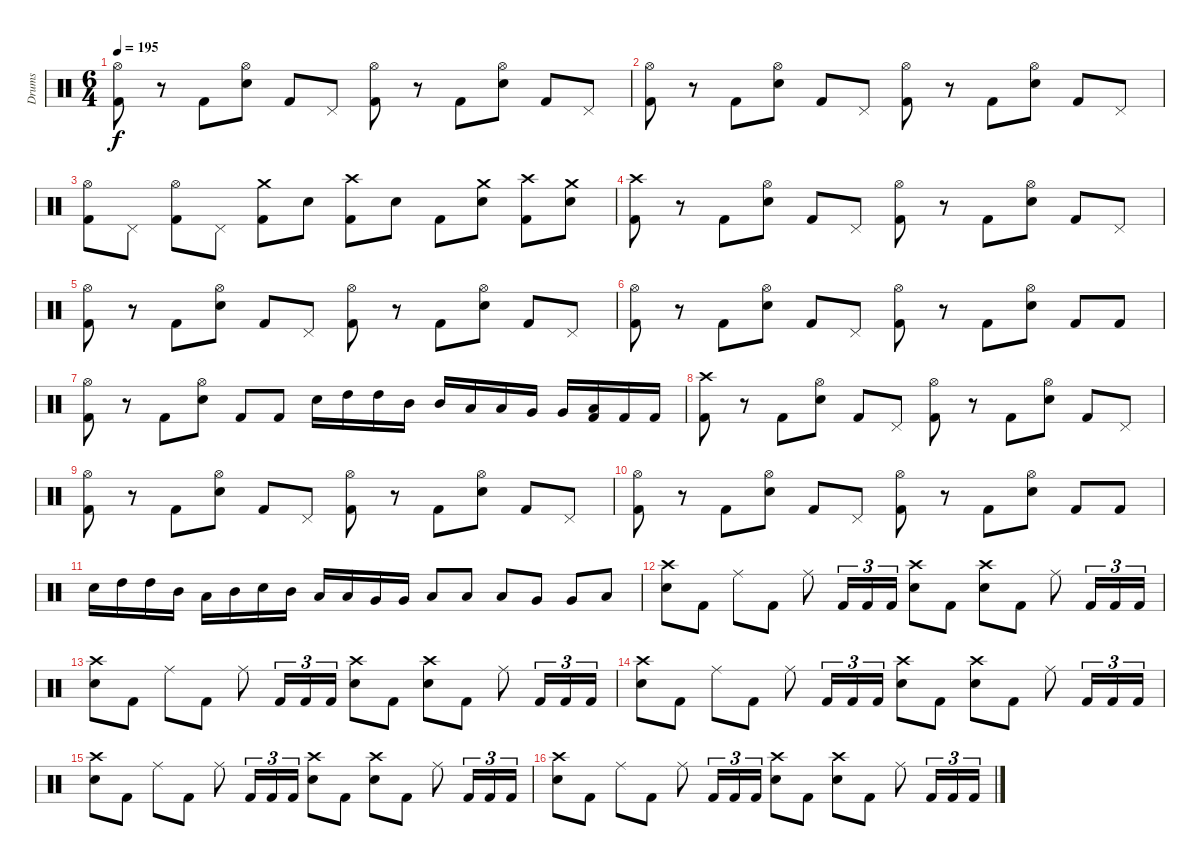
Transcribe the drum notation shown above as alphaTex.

\track ("Drums" "Drums") {instrument percussion}
\staff {score}
\articulation defaults
\ts (6 4)
\tempo 195
\clef neutral
\ks c
("Hi-Hat (open)" "Kick (hit) 2").8{dy f} r.8 "Kick (hit) 2".8 ("Hi-Hat (open)" "Electric Snare (hit)").8 "Kick (hit) 2".8 "Pedal Hi-Hat (hit)".8 ("Hi-Hat (open)" "Kick (hit) 2").8 r.8 "Kick (hit) 2".8 ("Hi-Hat (open)" "Electric Snare (hit)").8 "Kick (hit) 2".8 "Pedal Hi-Hat (hit)".8 |
("Hi-Hat (open)" "Kick (hit) 2").8 r.8 "Kick (hit) 2".8 ("Hi-Hat (open)" "Electric Snare (hit)").8 "Kick (hit) 2".8 "Pedal Hi-Hat (hit)".8 ("Hi-Hat (open)" "Kick (hit) 2").8 r.8 "Kick (hit) 2".8 ("Hi-Hat (open)" "Electric Snare (hit)").8 "Kick (hit) 2".8 "Pedal Hi-Hat (hit)".8 |
("Hi-Hat (open)" "Kick (hit) 2").8 "Pedal Hi-Hat (hit)".8 ("Hi-Hat (open)" "Kick (hit) 2").8 "Pedal Hi-Hat (hit)".8 ("Crash medium (hit)" "Kick (hit) 2").8 "Electric Snare (hit)".8 ("Crash high (hit)" "Kick (hit) 2").8 "Electric Snare (hit)".8 "Kick (hit) 2".8 ("Crash medium (hit)" "Electric Snare (hit)").8 ("Crash high (hit)" "Kick (hit) 2").8 ("Crash medium (hit)" "Electric Snare (hit)").8 |
("Crash high (hit)" "Kick (hit) 2").8 r.8 "Kick (hit) 2".8 ("Hi-Hat (open)" "Electric Snare (hit)").8 "Kick (hit) 2".8 "Pedal Hi-Hat (hit)".8 ("Hi-Hat (open)" "Kick (hit) 2").8 r.8 "Kick (hit) 2".8 ("Hi-Hat (open)" "Electric Snare (hit)").8 "Kick (hit) 2".8 "Pedal Hi-Hat (hit)".8 |
("Hi-Hat (open)" "Kick (hit) 2").8 r.8 "Kick (hit) 2".8 ("Hi-Hat (open)" "Electric Snare (hit)").8 "Kick (hit) 2".8 "Pedal Hi-Hat (hit)".8 ("Hi-Hat (open)" "Kick (hit) 2").8 r.8 "Kick (hit) 2".8 ("Hi-Hat (open)" "Electric Snare (hit)").8 "Kick (hit) 2".8 "Pedal Hi-Hat (hit)".8 |
("Hi-Hat (open)" "Kick (hit) 2").8 r.8 "Kick (hit) 2".8 ("Hi-Hat (open)" "Electric Snare (hit)").8 "Kick (hit) 2".8 "Pedal Hi-Hat (hit)".8 ("Hi-Hat (open)" "Kick (hit) 2").8 r.8 "Kick (hit) 2".8 ("Hi-Hat (open)" "Electric Snare (hit)").8 "Kick (hit) 2".8 "Kick (hit) 2".8 |
("Hi-Hat (open)" "Kick (hit) 2").8 r.8 "Kick (hit) 2".8 ("Hi-Hat (open)" "Electric Snare (hit)").8 "Kick (hit) 2".8 "Kick (hit) 2".8 "Electric Snare (hit)".16 "High Tom (hit)".16 "High Tom (hit)".16 "Mid Tom (hit)".16 "Mid Tom (hit)".16 "Low Tom (hit)".16 "Low Tom (hit)".16 "Very Low Tom (hit)".16 "Very Low Tom (hit)".16 ("Low Floor Tom (hit)" "Kick (hit) 2").16 "Kick (hit) 2".16 "Kick (hit) 2".16 |
("Crash high (hit)" "Kick (hit) 2").8 r.8 "Kick (hit) 2".8 ("Hi-Hat (open)" "Electric Snare (hit)").8 "Kick (hit) 2".8 "Pedal Hi-Hat (hit)".8 ("Hi-Hat (open)" "Kick (hit) 2").8 r.8 "Kick (hit) 2".8 ("Hi-Hat (open)" "Electric Snare (hit)").8 "Kick (hit) 2".8 "Pedal Hi-Hat (hit)".8 |
("Hi-Hat (open)" "Kick (hit) 2").8 r.8 "Kick (hit) 2".8 ("Hi-Hat (open)" "Electric Snare (hit)").8 "Kick (hit) 2".8 "Pedal Hi-Hat (hit)".8 ("Hi-Hat (open)" "Kick (hit) 2").8 r.8 "Kick (hit) 2".8 ("Hi-Hat (open)" "Electric Snare (hit)").8 "Kick (hit) 2".8 "Pedal Hi-Hat (hit)".8 |
("Hi-Hat (open)" "Kick (hit) 2").8 r.8 "Kick (hit) 2".8 ("Hi-Hat (open)" "Electric Snare (hit)").8 "Kick (hit) 2".8 "Pedal Hi-Hat (hit)".8 ("Hi-Hat (open)" "Kick (hit) 2").8 r.8 "Kick (hit) 2".8 ("Hi-Hat (open)" "Electric Snare (hit)").8 "Kick (hit) 2".8 "Kick (hit) 2".8 |
"Electric Snare (hit)".16 "High Tom (hit)".16 "High Tom (hit)".16 "Mid Tom (hit)".16 "Low Tom (hit)".16 "Mid Tom (hit)".16 "Electric Snare (hit)".16 "Mid Tom (hit)".16 "Low Tom (hit)".16 "Low Tom (hit)".16 "Very Low Tom (hit)".16 "Very Low Tom (hit)".16 "Low Tom (hit)".8 "Low Tom (hit)".8 "Low Tom (hit)".8 "Very Low Tom (hit)".8 "Very Low Tom (hit)".8 "Low Floor Tom (hit)".8 |
("Crash high (hit)" "Electric Snare (hit)").8 "Kick (hit) 2".8 "Ride (middle)".8 "Kick (hit) 2".8 "Ride (middle)".8 "Kick (hit) 2".16{tu (3 2)} "Kick (hit) 2".16{tu (3 2)} "Kick (hit) 2".16{tu (3 2)} ("Crash high (hit)" "Electric Snare (hit)").8 "Kick (hit) 2".8 ("Crash high (hit)" "Electric Snare (hit)").8 "Kick (hit) 2".8 "Ride (middle)".8 "Kick (hit) 2".16{tu (3 2)} "Kick (hit) 2".16{tu (3 2)} "Kick (hit) 2".16{tu (3 2)} |
("Crash high (hit)" "Electric Snare (hit)").8 "Kick (hit) 2".8 "Ride (middle)".8 "Kick (hit) 2".8 "Ride (middle)".8 "Kick (hit) 2".16{tu (3 2)} "Kick (hit) 2".16{tu (3 2)} "Kick (hit) 2".16{tu (3 2)} ("Crash high (hit)" "Electric Snare (hit)").8 "Kick (hit) 2".8 ("Crash high (hit)" "Electric Snare (hit)").8 "Kick (hit) 2".8 "Ride (middle)".8 "Kick (hit) 2".16{tu (3 2)} "Kick (hit) 2".16{tu (3 2)} "Kick (hit) 2".16{tu (3 2)} |
("Crash high (hit)" "Electric Snare (hit)").8 "Kick (hit) 2".8 "Ride (middle)".8 "Kick (hit) 2".8 "Ride (middle)".8 "Kick (hit) 2".16{tu (3 2)} "Kick (hit) 2".16{tu (3 2)} "Kick (hit) 2".16{tu (3 2)} ("Crash high (hit)" "Electric Snare (hit)").8 "Kick (hit) 2".8 ("Crash high (hit)" "Electric Snare (hit)").8 "Kick (hit) 2".8 "Ride (middle)".8 "Kick (hit) 2".16{tu (3 2)} "Kick (hit) 2".16{tu (3 2)} "Kick (hit) 2".16{tu (3 2)} |
("Crash high (hit)" "Electric Snare (hit)").8 "Kick (hit) 2".8 "Ride (middle)".8 "Kick (hit) 2".8 "Ride (middle)".8 "Kick (hit) 2".16{tu (3 2)} "Kick (hit) 2".16{tu (3 2)} "Kick (hit) 2".16{tu (3 2)} ("Crash high (hit)" "Electric Snare (hit)").8 "Kick (hit) 2".8 ("Crash high (hit)" "Electric Snare (hit)").8 "Kick (hit) 2".8 "Ride (middle)".8 "Kick (hit) 2".16{tu (3 2)} "Kick (hit) 2".16{tu (3 2)} "Kick (hit) 2".16{tu (3 2)} |
("Crash high (hit)" "Electric Snare (hit)").8 "Kick (hit) 2".8 "Ride (middle)".8 "Kick (hit) 2".8 "Ride (middle)".8 "Kick (hit) 2".16{tu (3 2)} "Kick (hit) 2".16{tu (3 2)} "Kick (hit) 2".16{tu (3 2)} ("Crash high (hit)" "Electric Snare (hit)").8 "Kick (hit) 2".8 ("Crash high (hit)" "Electric Snare (hit)").8 "Kick (hit) 2".8 "Ride (middle)".8 "Kick (hit) 2".16{tu (3 2)} "Kick (hit) 2".16{tu (3 2)} "Kick (hit) 2".16{tu (3 2)}
